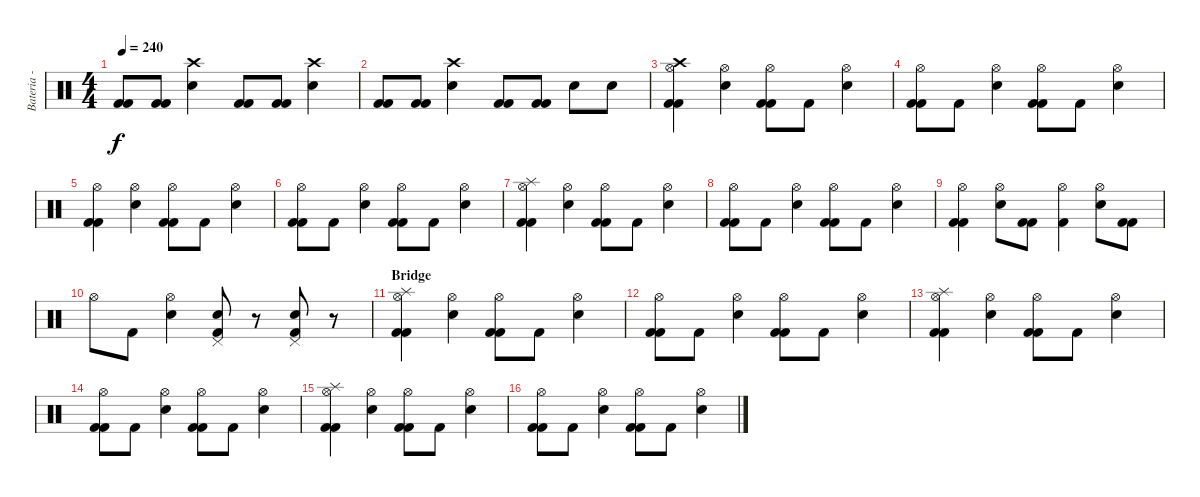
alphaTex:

\track ("Bateria - Larzon" "Bateria - ") {instrument percussion}
\staff {score}
\articulation defaults
\ts (4 4)
\tempo 240
\clef neutral
\ks c
("Kick (hit) 2" "Kick (hit) 2").8{dy f volume 16} ("Kick (hit) 2" "Kick (hit) 2").8 ("Snare (hit) 2" "Crash high (hit)").4 ("Kick (hit) 2" "Kick (hit) 2").8 ("Kick (hit) 2" "Kick (hit) 2").8 ("Snare (hit) 2" "Crash high (hit)").4 |
("Kick (hit) 2" "Kick (hit) 2").8 ("Kick (hit) 2" "Kick (hit) 2").8 ("Snare (hit) 2" "Crash high (hit)").4 ("Kick (hit) 2" "Kick (hit) 2").8 ("Kick (hit) 2" "Kick (hit) 2").8 "Snare (hit) 2".8 "Snare (hit) 2".8 |
("Kick (hit) 2" "Kick (hit) 2" "Crash high (hit)" "Hi-Hat (open)").4 ("Snare (hit) 2" "Hi-Hat (open)").4 ("Kick (hit) 2" "Hi-Hat (open)" "Kick (hit) 2").8{volume 12} "Kick (hit) 2".8 ("Snare (hit) 2" "Hi-Hat (open)").4{volume 12} |
("Kick (hit) 2" "Kick (hit) 2" "Hi-Hat (open)").8{volume 16} "Kick (hit) 2".8 ("Snare (hit) 2" "Hi-Hat (open)").4 ("Kick (hit) 2" "Kick (hit) 2" "Hi-Hat (open)").8{volume 12} "Kick (hit) 2".8 ("Snare (hit) 2" "Hi-Hat (open)").4{volume 12} |
("Kick (hit) 2" "Kick (hit) 2" "Hi-Hat (open)").4{volume 16} ("Snare (hit) 2" "Hi-Hat (open)").4 ("Kick (hit) 2" "Hi-Hat (open)" "Kick (hit) 2").8{volume 12} "Kick (hit) 2".8 ("Snare (hit) 2" "Hi-Hat (open)").4{volume 12} |
("Kick (hit) 2" "Kick (hit) 2" "Hi-Hat (open)").8{volume 16} "Kick (hit) 2".8 ("Snare (hit) 2" "Hi-Hat (open)").4 ("Kick (hit) 2" "Kick (hit) 2" "Hi-Hat (open)").8{volume 12} "Kick (hit) 2".8 ("Snare (hit) 2" "Hi-Hat (open)").4{volume 12} |
("Kick (hit) 2" "Kick (hit) 2" "Splash (hit)" "Hi-Hat (open)").4{volume 16} ("Snare (hit) 2" "Hi-Hat (open)").4 ("Kick (hit) 2" "Hi-Hat (open)" "Kick (hit) 2").8{volume 12} "Kick (hit) 2".8 ("Snare (hit) 2" "Hi-Hat (open)").4{volume 12} |
("Kick (hit) 2" "Kick (hit) 2" "Hi-Hat (open)").8{volume 16} "Kick (hit) 2".8 ("Snare (hit) 2" "Hi-Hat (open)").4 ("Kick (hit) 2" "Kick (hit) 2" "Hi-Hat (open)").8{volume 12} "Kick (hit) 2".8 ("Snare (hit) 2" "Hi-Hat (open)").4{volume 12} |
("Kick (hit) 2" "Hi-Hat (open)" "Kick (hit) 2").4{volume 16} ("Hi-Hat (open)" "Snare (hit) 2").8 ("Kick (hit) 2" "Kick (hit) 2").8 ("Kick (hit) 2" "Hi-Hat (open)").4 ("Hi-Hat (open)" "Snare (hit) 2").8 ("Kick (hit) 2" "Kick (hit) 2").8 |
"Hi-Hat (open)".8 "Kick (hit) 2".8 ("Hi-Hat (open)" "Snare (hit) 2").4 ("Pedal Hi-Hat (hit)" "Snare (hit) 2" "Kick (hit) 2").8 r.8 ("Pedal Hi-Hat (hit)" "Snare (hit) 2" "Kick (hit) 2").8 r.8 |
\section ("" "Bridge")
("Kick (hit) 2" "Kick (hit) 2" "Splash (hit)" "Hi-Hat (open)").4{volume 16} ("Snare (hit) 2" "Hi-Hat (open)").4 ("Kick (hit) 2" "Hi-Hat (open)" "Kick (hit) 2").8{volume 12} "Kick (hit) 2".8 ("Snare (hit) 2" "Hi-Hat (open)").4{volume 12} |
("Kick (hit) 2" "Kick (hit) 2" "Hi-Hat (open)").8{volume 16} "Kick (hit) 2".8 ("Snare (hit) 2" "Hi-Hat (open)").4 ("Kick (hit) 2" "Kick (hit) 2" "Hi-Hat (open)").8{volume 12} "Kick (hit) 2".8 ("Snare (hit) 2" "Hi-Hat (open)").4{volume 12} |
("Kick (hit) 2" "Kick (hit) 2" "Splash (hit)" "Hi-Hat (open)").4{volume 16} ("Snare (hit) 2" "Hi-Hat (open)").4 ("Kick (hit) 2" "Hi-Hat (open)" "Kick (hit) 2").8{volume 12} "Kick (hit) 2".8 ("Snare (hit) 2" "Hi-Hat (open)").4{volume 12} |
("Kick (hit) 2" "Kick (hit) 2" "Hi-Hat (open)").8{volume 16} "Kick (hit) 2".8 ("Snare (hit) 2" "Hi-Hat (open)").4 ("Kick (hit) 2" "Kick (hit) 2" "Hi-Hat (open)").8{volume 12} "Kick (hit) 2".8 ("Snare (hit) 2" "Hi-Hat (open)").4{volume 12} |
("Kick (hit) 2" "Kick (hit) 2" "Splash (hit)" "Hi-Hat (open)").4{volume 16} ("Snare (hit) 2" "Hi-Hat (open)").4 ("Kick (hit) 2" "Hi-Hat (open)" "Kick (hit) 2").8{volume 12} "Kick (hit) 2".8 ("Snare (hit) 2" "Hi-Hat (open)").4{volume 12} |
("Kick (hit) 2" "Kick (hit) 2" "Hi-Hat (open)").8{volume 16} "Kick (hit) 2".8 ("Snare (hit) 2" "Hi-Hat (open)").4 ("Kick (hit) 2" "Kick (hit) 2" "Hi-Hat (open)").8{volume 12} "Kick (hit) 2".8 ("Snare (hit) 2" "Hi-Hat (open)").4{volume 12}
